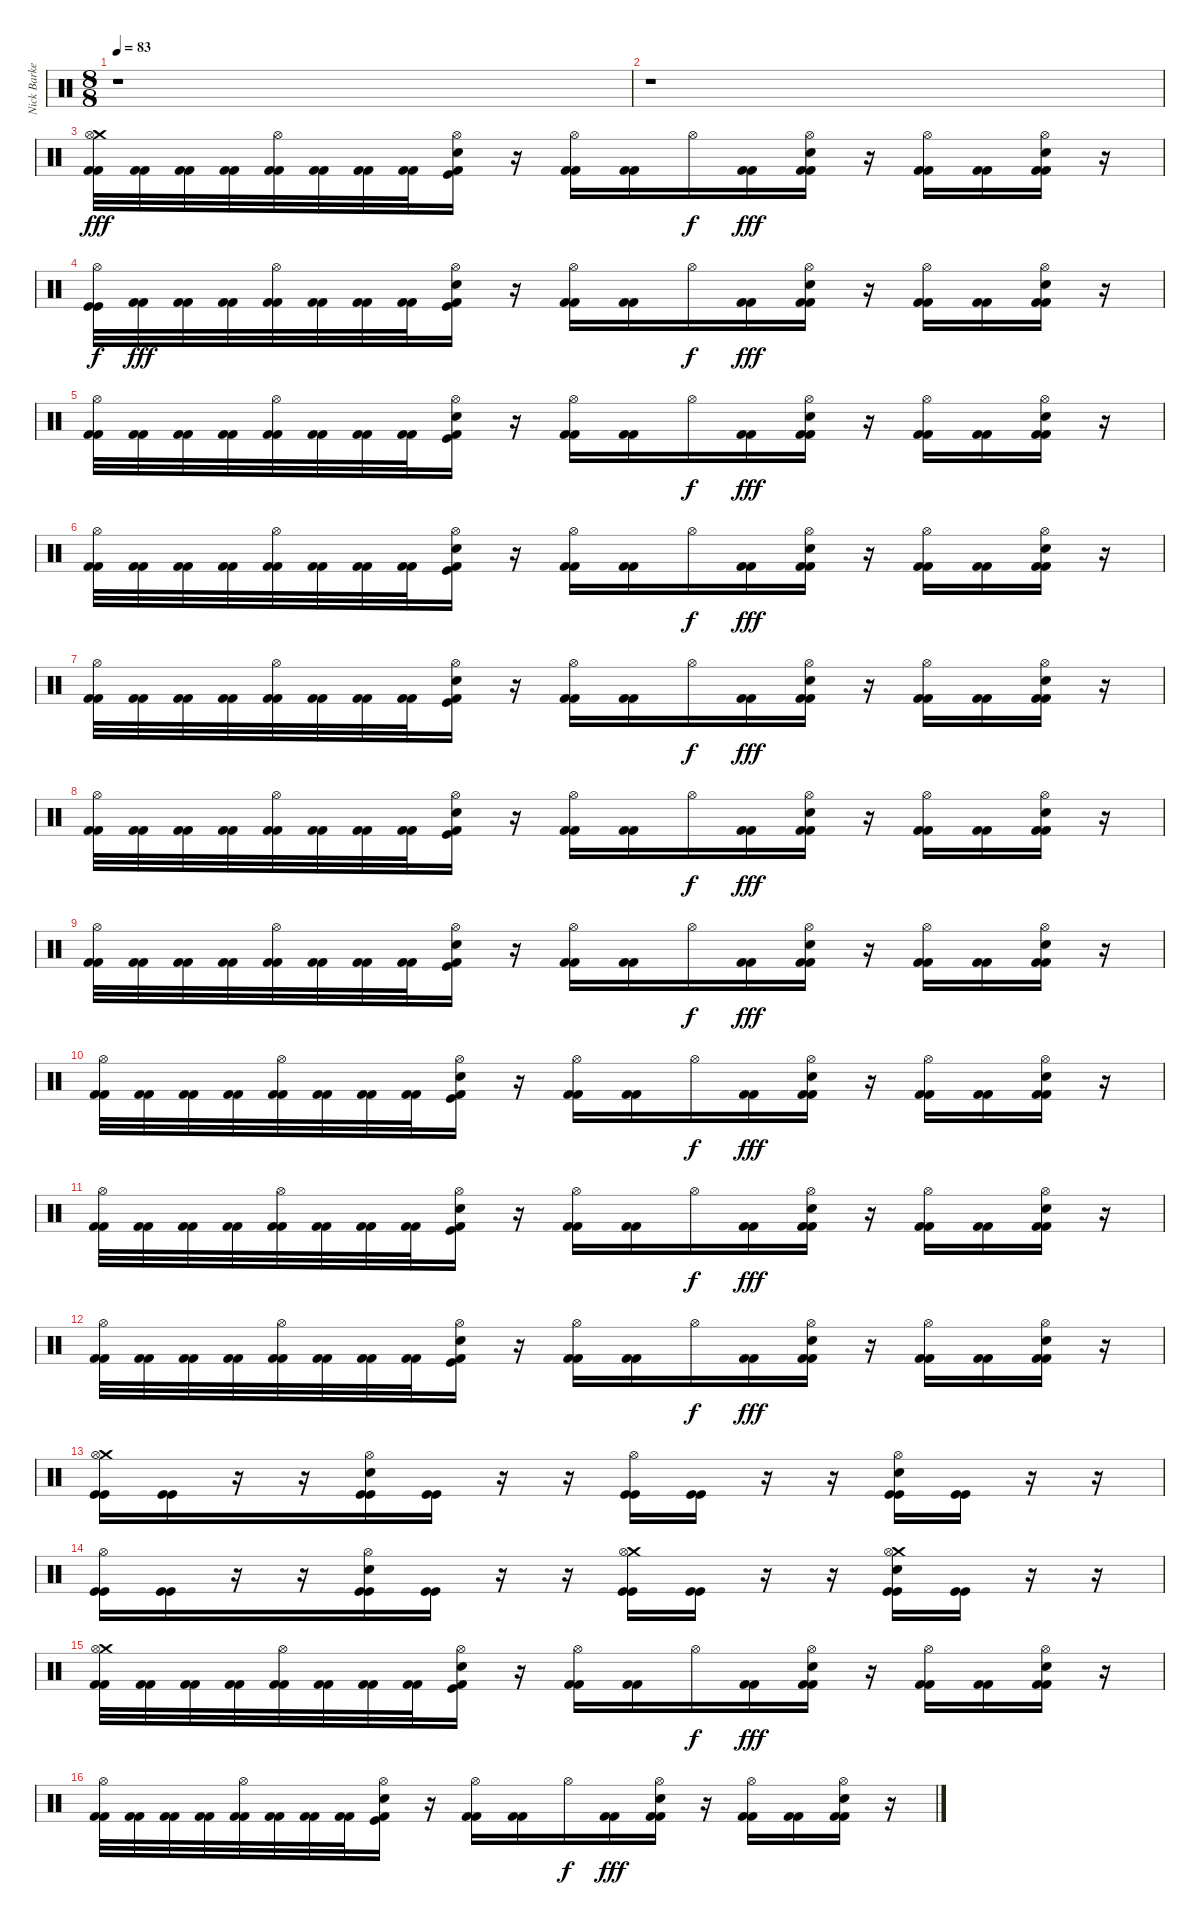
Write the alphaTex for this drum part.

\track ("Nick Barker" "Nick Barke") {instrument percussion}
\staff {score}
\articulation defaults
\ts (8 8)
\tempo 83
\clef neutral
\ks c
r.1{dy fff} |
r.1 |
("Kick (hit) 2" "Crash medium (hit)" "Hi-Hat (open)" "Kick (hit) 2").32 ("Kick (hit) 2" "Kick (hit) 2").32 ("Kick (hit) 2" "Kick (hit) 2").32 ("Kick (hit) 2" "Kick (hit) 2").32 ("Kick (hit) 2" "Hi-Hat (open)" "Kick (hit) 2").32 ("Kick (hit) 2" "Kick (hit) 2").32 ("Kick (hit) 2" "Kick (hit) 2").32 ("Kick (hit) 2" "Kick (hit) 2").32 ("Kick (hit) 2" "Hi-Hat (open)" "Snare (hit) 2" "Kick (hit)").16 r.16 ("Kick (hit) 2" "Hi-Hat (open)" "Kick (hit) 2").16 ("Kick (hit) 2" "Kick (hit) 2").16 "Hi-Hat (open)".16{dy f} ("Kick (hit) 2" "Kick (hit) 2").16{dy fff} ("Kick (hit) 2" "Snare (hit) 2" "Hi-Hat (open)" "Kick (hit) 2").16 r.16 ("Kick (hit) 2" "Hi-Hat (open)" "Kick (hit) 2").16 ("Kick (hit) 2" "Kick (hit) 2").16 ("Kick (hit) 2" "Snare (hit) 2" "Hi-Hat (open)" "Kick (hit) 2").16 r.16 |
("Kick (hit)" "Hi-Hat (open)" "Kick (hit)").32{dy f} ("Kick (hit) 2" "Kick (hit) 2").32{dy fff} ("Kick (hit) 2" "Kick (hit) 2").32 ("Kick (hit) 2" "Kick (hit) 2").32 ("Kick (hit) 2" "Hi-Hat (open)" "Kick (hit) 2").32 ("Kick (hit) 2" "Kick (hit) 2").32 ("Kick (hit) 2" "Kick (hit) 2").32 ("Kick (hit) 2" "Kick (hit) 2").32 ("Kick (hit) 2" "Hi-Hat (open)" "Snare (hit) 2" "Kick (hit)").16 r.16 ("Kick (hit) 2" "Hi-Hat (open)" "Kick (hit) 2").16 ("Kick (hit) 2" "Kick (hit) 2").16 "Hi-Hat (open)".16{dy f} ("Kick (hit) 2" "Kick (hit) 2").16{dy fff} ("Kick (hit) 2" "Snare (hit) 2" "Hi-Hat (open)" "Kick (hit) 2").16 r.16 ("Kick (hit) 2" "Hi-Hat (open)" "Kick (hit) 2").16 ("Kick (hit) 2" "Kick (hit) 2").16 ("Kick (hit) 2" "Snare (hit) 2" "Hi-Hat (open)" "Kick (hit) 2").16 r.16 |
("Kick (hit) 2" "Hi-Hat (open)" "Kick (hit) 2").32 ("Kick (hit) 2" "Kick (hit) 2").32 ("Kick (hit) 2" "Kick (hit) 2").32 ("Kick (hit) 2" "Kick (hit) 2").32 ("Kick (hit) 2" "Hi-Hat (open)" "Kick (hit) 2").32 ("Kick (hit) 2" "Kick (hit) 2").32 ("Kick (hit) 2" "Kick (hit) 2").32 ("Kick (hit) 2" "Kick (hit) 2").32 ("Kick (hit) 2" "Hi-Hat (open)" "Snare (hit) 2" "Kick (hit)").16 r.16 ("Kick (hit) 2" "Hi-Hat (open)" "Kick (hit) 2").16 ("Kick (hit) 2" "Kick (hit) 2").16 "Hi-Hat (open)".16{dy f} ("Kick (hit) 2" "Kick (hit) 2").16{dy fff} ("Kick (hit) 2" "Snare (hit) 2" "Hi-Hat (open)" "Kick (hit) 2").16 r.16 ("Kick (hit) 2" "Hi-Hat (open)" "Kick (hit) 2").16 ("Kick (hit) 2" "Kick (hit) 2").16 ("Kick (hit) 2" "Snare (hit) 2" "Hi-Hat (open)" "Kick (hit) 2").16 r.16 |
("Kick (hit) 2" "Hi-Hat (open)" "Kick (hit) 2").32 ("Kick (hit) 2" "Kick (hit) 2").32 ("Kick (hit) 2" "Kick (hit) 2").32 ("Kick (hit) 2" "Kick (hit) 2").32 ("Kick (hit) 2" "Hi-Hat (open)" "Kick (hit) 2").32 ("Kick (hit) 2" "Kick (hit) 2").32 ("Kick (hit) 2" "Kick (hit) 2").32 ("Kick (hit) 2" "Kick (hit) 2").32 ("Kick (hit) 2" "Hi-Hat (open)" "Snare (hit) 2" "Kick (hit)").16 r.16 ("Kick (hit) 2" "Hi-Hat (open)" "Kick (hit) 2").16 ("Kick (hit) 2" "Kick (hit) 2").16 "Hi-Hat (open)".16{dy f} ("Kick (hit) 2" "Kick (hit) 2").16{dy fff} ("Kick (hit) 2" "Snare (hit) 2" "Hi-Hat (open)" "Kick (hit) 2").16 r.16 ("Kick (hit) 2" "Hi-Hat (open)" "Kick (hit) 2").16 ("Kick (hit) 2" "Kick (hit) 2").16 ("Kick (hit) 2" "Snare (hit) 2" "Hi-Hat (open)" "Kick (hit) 2").16 r.16 |
("Kick (hit) 2" "Hi-Hat (open)" "Kick (hit) 2").32 ("Kick (hit) 2" "Kick (hit) 2").32 ("Kick (hit) 2" "Kick (hit) 2").32 ("Kick (hit) 2" "Kick (hit) 2").32 ("Kick (hit) 2" "Hi-Hat (open)" "Kick (hit) 2").32 ("Kick (hit) 2" "Kick (hit) 2").32 ("Kick (hit) 2" "Kick (hit) 2").32 ("Kick (hit) 2" "Kick (hit) 2").32 ("Kick (hit) 2" "Hi-Hat (open)" "Snare (hit) 2" "Kick (hit)").16 r.16 ("Kick (hit) 2" "Hi-Hat (open)" "Kick (hit) 2").16 ("Kick (hit) 2" "Kick (hit) 2").16 "Hi-Hat (open)".16{dy f} ("Kick (hit) 2" "Kick (hit) 2").16{dy fff} ("Kick (hit) 2" "Snare (hit) 2" "Hi-Hat (open)" "Kick (hit) 2").16 r.16 ("Kick (hit) 2" "Hi-Hat (open)" "Kick (hit) 2").16 ("Kick (hit) 2" "Kick (hit) 2").16 ("Kick (hit) 2" "Snare (hit) 2" "Hi-Hat (open)" "Kick (hit) 2").16 r.16 |
("Kick (hit) 2" "Hi-Hat (open)" "Kick (hit) 2").32 ("Kick (hit) 2" "Kick (hit) 2").32 ("Kick (hit) 2" "Kick (hit) 2").32 ("Kick (hit) 2" "Kick (hit) 2").32 ("Kick (hit) 2" "Hi-Hat (open)" "Kick (hit) 2").32 ("Kick (hit) 2" "Kick (hit) 2").32 ("Kick (hit) 2" "Kick (hit) 2").32 ("Kick (hit) 2" "Kick (hit) 2").32 ("Kick (hit) 2" "Hi-Hat (open)" "Snare (hit) 2" "Kick (hit)").16 r.16 ("Kick (hit) 2" "Hi-Hat (open)" "Kick (hit) 2").16 ("Kick (hit) 2" "Kick (hit) 2").16 "Hi-Hat (open)".16{dy f} ("Kick (hit) 2" "Kick (hit) 2").16{dy fff} ("Kick (hit) 2" "Snare (hit) 2" "Hi-Hat (open)" "Kick (hit) 2").16 r.16 ("Kick (hit) 2" "Hi-Hat (open)" "Kick (hit) 2").16 ("Kick (hit) 2" "Kick (hit) 2").16 ("Kick (hit) 2" "Snare (hit) 2" "Hi-Hat (open)" "Kick (hit) 2").16 r.16 |
("Kick (hit) 2" "Hi-Hat (open)" "Kick (hit) 2").32 ("Kick (hit) 2" "Kick (hit) 2").32 ("Kick (hit) 2" "Kick (hit) 2").32 ("Kick (hit) 2" "Kick (hit) 2").32 ("Kick (hit) 2" "Hi-Hat (open)" "Kick (hit) 2").32 ("Kick (hit) 2" "Kick (hit) 2").32 ("Kick (hit) 2" "Kick (hit) 2").32 ("Kick (hit) 2" "Kick (hit) 2").32 ("Kick (hit) 2" "Hi-Hat (open)" "Snare (hit) 2" "Kick (hit)").16 r.16 ("Kick (hit) 2" "Hi-Hat (open)" "Kick (hit) 2").16 ("Kick (hit) 2" "Kick (hit) 2").16 "Hi-Hat (open)".16{dy f} ("Kick (hit) 2" "Kick (hit) 2").16{dy fff} ("Kick (hit) 2" "Snare (hit) 2" "Hi-Hat (open)" "Kick (hit) 2").16 r.16 ("Kick (hit) 2" "Hi-Hat (open)" "Kick (hit) 2").16 ("Kick (hit) 2" "Kick (hit) 2").16 ("Kick (hit) 2" "Snare (hit) 2" "Hi-Hat (open)" "Kick (hit) 2").16 r.16 |
("Kick (hit) 2" "Hi-Hat (open)" "Kick (hit) 2").32 ("Kick (hit) 2" "Kick (hit) 2").32 ("Kick (hit) 2" "Kick (hit) 2").32 ("Kick (hit) 2" "Kick (hit) 2").32 ("Kick (hit) 2" "Hi-Hat (open)" "Kick (hit) 2").32 ("Kick (hit) 2" "Kick (hit) 2").32 ("Kick (hit) 2" "Kick (hit) 2").32 ("Kick (hit) 2" "Kick (hit) 2").32 ("Kick (hit) 2" "Hi-Hat (open)" "Snare (hit) 2" "Kick (hit)").16 r.16 ("Kick (hit) 2" "Hi-Hat (open)" "Kick (hit) 2").16 ("Kick (hit) 2" "Kick (hit) 2").16 "Hi-Hat (open)".16{dy f} ("Kick (hit) 2" "Kick (hit) 2").16{dy fff} ("Kick (hit) 2" "Snare (hit) 2" "Hi-Hat (open)" "Kick (hit) 2").16 r.16 ("Kick (hit) 2" "Hi-Hat (open)" "Kick (hit) 2").16 ("Kick (hit) 2" "Kick (hit) 2").16 ("Kick (hit) 2" "Snare (hit) 2" "Hi-Hat (open)" "Kick (hit) 2").16 r.16 |
("Kick (hit) 2" "Hi-Hat (open)" "Kick (hit) 2").32 ("Kick (hit) 2" "Kick (hit) 2").32 ("Kick (hit) 2" "Kick (hit) 2").32 ("Kick (hit) 2" "Kick (hit) 2").32 ("Kick (hit) 2" "Hi-Hat (open)" "Kick (hit) 2").32 ("Kick (hit) 2" "Kick (hit) 2").32 ("Kick (hit) 2" "Kick (hit) 2").32 ("Kick (hit) 2" "Kick (hit) 2").32 ("Kick (hit) 2" "Hi-Hat (open)" "Snare (hit) 2" "Kick (hit)").16 r.16 ("Kick (hit) 2" "Hi-Hat (open)" "Kick (hit) 2").16 ("Kick (hit) 2" "Kick (hit) 2").16 "Hi-Hat (open)".16{dy f} ("Kick (hit) 2" "Kick (hit) 2").16{dy fff} ("Kick (hit) 2" "Snare (hit) 2" "Hi-Hat (open)" "Kick (hit) 2").16 r.16 ("Kick (hit) 2" "Hi-Hat (open)" "Kick (hit) 2").16 ("Kick (hit) 2" "Kick (hit) 2").16 ("Kick (hit) 2" "Snare (hit) 2" "Hi-Hat (open)" "Kick (hit) 2").16 r.16 |
("Kick (hit) 2" "Hi-Hat (open)" "Kick (hit) 2").32 ("Kick (hit) 2" "Kick (hit) 2").32 ("Kick (hit) 2" "Kick (hit) 2").32 ("Kick (hit) 2" "Kick (hit) 2").32 ("Kick (hit) 2" "Hi-Hat (open)" "Kick (hit) 2").32 ("Kick (hit) 2" "Kick (hit) 2").32 ("Kick (hit) 2" "Kick (hit) 2").32 ("Kick (hit) 2" "Kick (hit) 2").32 ("Kick (hit) 2" "Hi-Hat (open)" "Snare (hit) 2" "Kick (hit)").16 r.16 ("Kick (hit) 2" "Hi-Hat (open)" "Kick (hit) 2").16 ("Kick (hit) 2" "Kick (hit) 2").16 "Hi-Hat (open)".16{dy f} ("Kick (hit) 2" "Kick (hit) 2").16{dy fff} ("Kick (hit) 2" "Snare (hit) 2" "Hi-Hat (open)" "Kick (hit) 2").16 r.16 ("Kick (hit) 2" "Hi-Hat (open)" "Kick (hit) 2").16 ("Kick (hit) 2" "Kick (hit) 2").16 ("Kick (hit) 2" "Snare (hit) 2" "Hi-Hat (open)" "Kick (hit) 2").16 r.16 |
("Kick (hit)" "Crash medium (hit)" "Hi-Hat (open)" "Kick (hit)").16 ("Kick (hit)" "Kick (hit)").16 r.16 r.16 ("Kick (hit)" "Snare (hit) 2" "Hi-Hat (open)" "Kick (hit)").16 ("Kick (hit)" "Kick (hit)").16 r.16 r.16 ("Kick (hit)" "Hi-Hat (open)" "Kick (hit)").16 ("Kick (hit)" "Kick (hit)").16 r.16 r.16 ("Kick (hit)" "Snare (hit) 2" "Hi-Hat (open)" "Kick (hit)").16 ("Kick (hit)" "Kick (hit)").16 r.16 r.16 |
("Kick (hit)" "Hi-Hat (open)" "Kick (hit)").16 ("Kick (hit)" "Kick (hit)").16 r.16 r.16 ("Kick (hit)" "Snare (hit) 2" "Hi-Hat (open)" "Kick (hit)").16 ("Kick (hit)" "Kick (hit)").16 r.16 r.16 ("Kick (hit)" "Crash medium (hit)" "Hi-Hat (open)" "Kick (hit)").16 ("Kick (hit)" "Kick (hit)").16 r.16 r.16 ("Kick (hit)" "Crash medium (hit)" "Snare (hit) 2" "Hi-Hat (open)" "Kick (hit)").16 ("Kick (hit)" "Kick (hit)").16 r.16 r.16 |
("Kick (hit) 2" "Crash medium (hit)" "Hi-Hat (open)" "Kick (hit) 2").32 ("Kick (hit) 2" "Kick (hit) 2").32 ("Kick (hit) 2" "Kick (hit) 2").32 ("Kick (hit) 2" "Kick (hit) 2").32 ("Kick (hit) 2" "Hi-Hat (open)" "Kick (hit) 2").32 ("Kick (hit) 2" "Kick (hit) 2").32 ("Kick (hit) 2" "Kick (hit) 2").32 ("Kick (hit) 2" "Kick (hit) 2").32 ("Kick (hit) 2" "Hi-Hat (open)" "Snare (hit) 2" "Kick (hit)").16 r.16 ("Kick (hit) 2" "Hi-Hat (open)" "Kick (hit) 2").16 ("Kick (hit) 2" "Kick (hit) 2").16 "Hi-Hat (open)".16{dy f} ("Kick (hit) 2" "Kick (hit) 2").16{dy fff} ("Kick (hit) 2" "Snare (hit) 2" "Hi-Hat (open)" "Kick (hit) 2").16 r.16 ("Kick (hit) 2" "Hi-Hat (open)" "Kick (hit) 2").16 ("Kick (hit) 2" "Kick (hit) 2").16 ("Kick (hit) 2" "Snare (hit) 2" "Hi-Hat (open)" "Kick (hit) 2").16 r.16 |
("Kick (hit) 2" "Hi-Hat (open)" "Kick (hit) 2").32 ("Kick (hit) 2" "Kick (hit) 2").32 ("Kick (hit) 2" "Kick (hit) 2").32 ("Kick (hit) 2" "Kick (hit) 2").32 ("Kick (hit) 2" "Hi-Hat (open)" "Kick (hit) 2").32 ("Kick (hit) 2" "Kick (hit) 2").32 ("Kick (hit) 2" "Kick (hit) 2").32 ("Kick (hit) 2" "Kick (hit) 2").32 ("Kick (hit) 2" "Hi-Hat (open)" "Snare (hit) 2" "Kick (hit)").16 r.16 ("Kick (hit) 2" "Hi-Hat (open)" "Kick (hit) 2").16 ("Kick (hit) 2" "Kick (hit) 2").16 "Hi-Hat (open)".16{dy f} ("Kick (hit) 2" "Kick (hit) 2").16{dy fff} ("Kick (hit) 2" "Snare (hit) 2" "Hi-Hat (open)" "Kick (hit) 2").16 r.16 ("Kick (hit) 2" "Hi-Hat (open)" "Kick (hit) 2").16 ("Kick (hit) 2" "Kick (hit) 2").16 ("Kick (hit) 2" "Snare (hit) 2" "Hi-Hat (open)" "Kick (hit) 2").16 r.16
